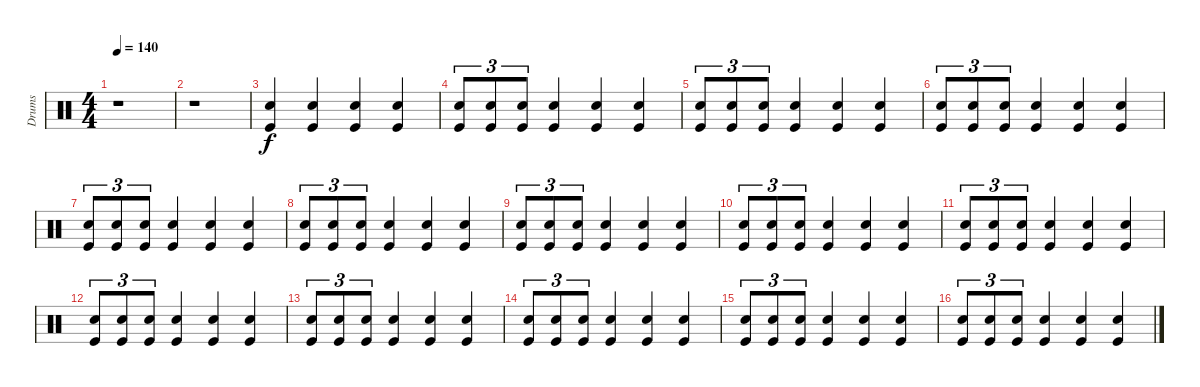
\track ("Drums" "Drums") {instrument percussion}
\staff {score}
\articulation defaults
\ts (4 4)
\tempo 140
\clef neutral
\ks c
r.1{dy f} |
r.1 |
("Snare (hit) 2" "Kick (hit)").4 ("Snare (hit) 2" "Kick (hit)").4 ("Snare (hit) 2" "Kick (hit)").4 ("Snare (hit) 2" "Kick (hit)").4 |
("Snare (hit) 2" "Kick (hit)").8{tu (3 2)} ("Snare (hit) 2" "Kick (hit)").8{tu (3 2)} ("Snare (hit) 2" "Kick (hit)").8{tu (3 2)} ("Snare (hit) 2" "Kick (hit)").4 ("Snare (hit) 2" "Kick (hit)").4 ("Snare (hit) 2" "Kick (hit)").4 |
("Snare (hit) 2" "Kick (hit)").8{tu (3 2)} ("Snare (hit) 2" "Kick (hit)").8{tu (3 2)} ("Snare (hit) 2" "Kick (hit)").8{tu (3 2)} ("Snare (hit) 2" "Kick (hit)").4 ("Snare (hit) 2" "Kick (hit)").4 ("Snare (hit) 2" "Kick (hit)").4 |
("Snare (hit) 2" "Kick (hit)").8{tu (3 2)} ("Snare (hit) 2" "Kick (hit)").8{tu (3 2)} ("Snare (hit) 2" "Kick (hit)").8{tu (3 2)} ("Snare (hit) 2" "Kick (hit)").4 ("Snare (hit) 2" "Kick (hit)").4 ("Snare (hit) 2" "Kick (hit)").4 |
("Snare (hit) 2" "Kick (hit)").8{tu (3 2)} ("Snare (hit) 2" "Kick (hit)").8{tu (3 2)} ("Snare (hit) 2" "Kick (hit)").8{tu (3 2)} ("Snare (hit) 2" "Kick (hit)").4 ("Snare (hit) 2" "Kick (hit)").4 ("Snare (hit) 2" "Kick (hit)").4 |
("Snare (hit) 2" "Kick (hit)").8{tu (3 2)} ("Snare (hit) 2" "Kick (hit)").8{tu (3 2)} ("Snare (hit) 2" "Kick (hit)").8{tu (3 2)} ("Snare (hit) 2" "Kick (hit)").4 ("Snare (hit) 2" "Kick (hit)").4 ("Snare (hit) 2" "Kick (hit)").4 |
("Snare (hit) 2" "Kick (hit)").8{tu (3 2)} ("Snare (hit) 2" "Kick (hit)").8{tu (3 2)} ("Snare (hit) 2" "Kick (hit)").8{tu (3 2)} ("Snare (hit) 2" "Kick (hit)").4 ("Snare (hit) 2" "Kick (hit)").4 ("Snare (hit) 2" "Kick (hit)").4 |
("Snare (hit) 2" "Kick (hit)").8{tu (3 2)} ("Snare (hit) 2" "Kick (hit)").8{tu (3 2)} ("Snare (hit) 2" "Kick (hit)").8{tu (3 2)} ("Snare (hit) 2" "Kick (hit)").4 ("Snare (hit) 2" "Kick (hit)").4 ("Snare (hit) 2" "Kick (hit)").4 |
("Snare (hit) 2" "Kick (hit)").8{tu (3 2)} ("Snare (hit) 2" "Kick (hit)").8{tu (3 2)} ("Snare (hit) 2" "Kick (hit)").8{tu (3 2)} ("Snare (hit) 2" "Kick (hit)").4 ("Snare (hit) 2" "Kick (hit)").4 ("Snare (hit) 2" "Kick (hit)").4 |
("Snare (hit) 2" "Kick (hit)").8{tu (3 2)} ("Snare (hit) 2" "Kick (hit)").8{tu (3 2)} ("Snare (hit) 2" "Kick (hit)").8{tu (3 2)} ("Snare (hit) 2" "Kick (hit)").4 ("Snare (hit) 2" "Kick (hit)").4 ("Snare (hit) 2" "Kick (hit)").4 |
("Snare (hit) 2" "Kick (hit)").8{tu (3 2)} ("Snare (hit) 2" "Kick (hit)").8{tu (3 2)} ("Snare (hit) 2" "Kick (hit)").8{tu (3 2)} ("Snare (hit) 2" "Kick (hit)").4 ("Snare (hit) 2" "Kick (hit)").4 ("Snare (hit) 2" "Kick (hit)").4 |
("Snare (hit) 2" "Kick (hit)").8{tu (3 2)} ("Snare (hit) 2" "Kick (hit)").8{tu (3 2)} ("Snare (hit) 2" "Kick (hit)").8{tu (3 2)} ("Snare (hit) 2" "Kick (hit)").4 ("Snare (hit) 2" "Kick (hit)").4 ("Snare (hit) 2" "Kick (hit)").4 |
("Snare (hit) 2" "Kick (hit)").8{tu (3 2)} ("Snare (hit) 2" "Kick (hit)").8{tu (3 2)} ("Snare (hit) 2" "Kick (hit)").8{tu (3 2)} ("Snare (hit) 2" "Kick (hit)").4 ("Snare (hit) 2" "Kick (hit)").4 ("Snare (hit) 2" "Kick (hit)").4 |
("Snare (hit) 2" "Kick (hit)").8{tu (3 2)} ("Snare (hit) 2" "Kick (hit)").8{tu (3 2)} ("Snare (hit) 2" "Kick (hit)").8{tu (3 2)} ("Snare (hit) 2" "Kick (hit)").4 ("Snare (hit) 2" "Kick (hit)").4 ("Snare (hit) 2" "Kick (hit)").4
